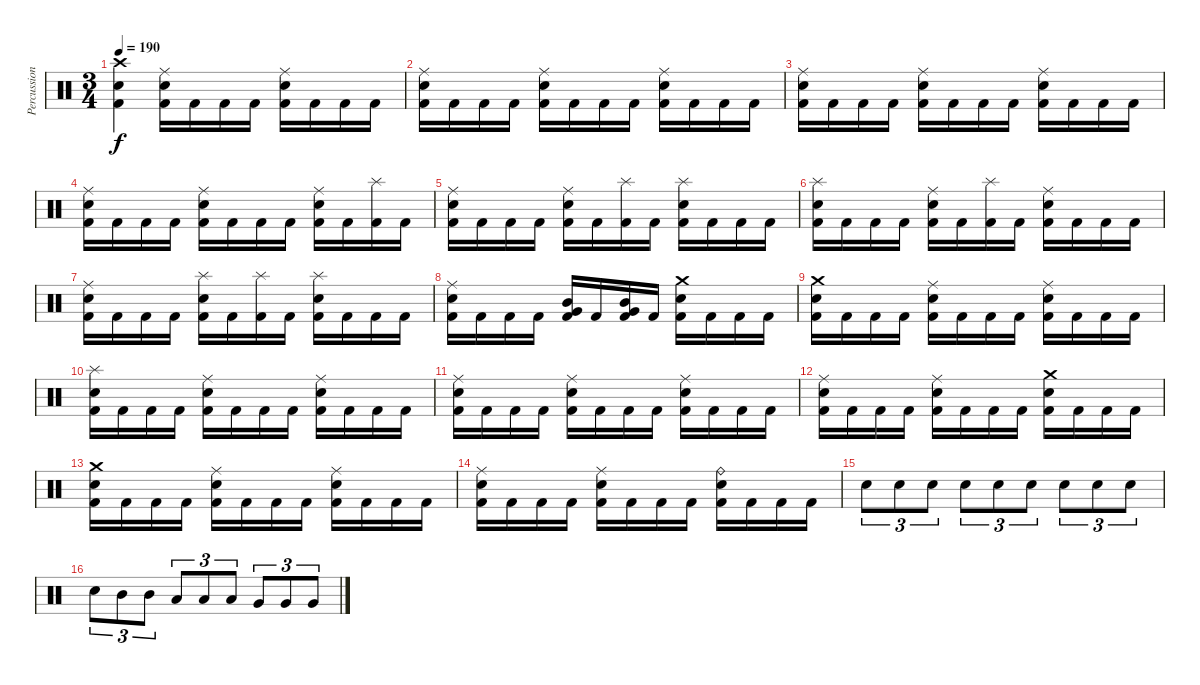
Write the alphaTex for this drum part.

\track ("Percussion" "Percussion") {instrument percussion}
\staff {score}
\articulation defaults
\ts (3 4)
\tempo 190
\clef neutral
\ks c
("Crash high (hit)" "Electric Snare (hit)" "Kick (hit) 2").4{dy f} ("Ride (middle)" "Electric Snare (hit)" "Kick (hit) 2").16 "Kick (hit) 2".16 "Kick (hit) 2".16 "Kick (hit) 2".16 ("Ride (middle)" "Electric Snare (hit)" "Kick (hit) 2").16 "Kick (hit) 2".16 "Kick (hit) 2".16 "Kick (hit) 2".16 |
("Ride (middle)" "Electric Snare (hit)" "Kick (hit) 2").16 "Kick (hit) 2".16 "Kick (hit) 2".16 "Kick (hit) 2".16 ("Ride (middle)" "Electric Snare (hit)" "Kick (hit) 2").16 "Kick (hit) 2".16 "Kick (hit) 2".16 "Kick (hit) 2".16 ("Ride (middle)" "Electric Snare (hit)" "Kick (hit) 2").16 "Kick (hit) 2".16 "Kick (hit) 2".16 "Kick (hit) 2".16 |
("Ride (middle)" "Electric Snare (hit)" "Kick (hit) 2").16 "Kick (hit) 2".16 "Kick (hit) 2".16 "Kick (hit) 2".16 ("Ride (middle)" "Electric Snare (hit)" "Kick (hit) 2").16 "Kick (hit) 2".16 "Kick (hit) 2".16 "Kick (hit) 2".16 ("Ride (middle)" "Electric Snare (hit)" "Kick (hit) 2").16 "Kick (hit) 2".16 "Kick (hit) 2".16 "Kick (hit) 2".16 |
("Ride (middle)" "Electric Snare (hit)" "Kick (hit) 2").16 "Kick (hit) 2".16 "Kick (hit) 2".16 "Kick (hit) 2".16 ("Ride (middle)" "Electric Snare (hit)" "Kick (hit) 2").16 "Kick (hit) 2".16 "Kick (hit) 2".16 "Kick (hit) 2".16 ("Ride (middle)" "Electric Snare (hit)" "Kick (hit) 2").16 "Kick (hit) 2".16 ("Splash (hit)" "Kick (hit) 2").16 "Kick (hit) 2".16 |
("Ride (middle)" "Electric Snare (hit)" "Kick (hit) 2").16 "Kick (hit) 2".16 "Kick (hit) 2".16 "Kick (hit) 2".16 ("Ride (middle)" "Electric Snare (hit)" "Kick (hit) 2").16 "Kick (hit) 2".16 ("Splash (hit)" "Kick (hit) 2").16 "Kick (hit) 2".16 ("Splash (hit)" "Electric Snare (hit)" "Kick (hit) 2").16 "Kick (hit) 2".16 "Kick (hit) 2".16 "Kick (hit) 2".16 |
("Splash (hit)" "Electric Snare (hit)" "Kick (hit) 2").16 "Kick (hit) 2".16 "Kick (hit) 2".16 "Kick (hit) 2".16 ("Ride (middle)" "Electric Snare (hit)" "Kick (hit) 2").16 "Kick (hit) 2".16 ("Splash (hit)" "Kick (hit) 2").16 "Kick (hit) 2".16 ("Ride (middle)" "Electric Snare (hit)" "Kick (hit) 2").16 "Kick (hit) 2".16 "Kick (hit) 2".16 "Kick (hit) 2".16 |
("Ride (middle)" "Electric Snare (hit)" "Kick (hit) 2").16 "Kick (hit) 2".16 "Kick (hit) 2".16 "Kick (hit) 2".16 ("Splash (hit)" "Electric Snare (hit)" "Kick (hit) 2").16 "Kick (hit) 2".16 ("Splash (hit)" "Kick (hit) 2").16 "Kick (hit) 2".16 ("Splash (hit)" "Electric Snare (hit)" "Kick (hit) 2").16 "Kick (hit) 2".16 "Kick (hit) 2".16 "Kick (hit) 2".16 |
("Ride (middle)" "Electric Snare (hit)" "Kick (hit) 2").16 "Kick (hit) 2".16 "Kick (hit) 2".16 "Kick (hit) 2".16 ("Mid Tom (hit)" "Very Low Tom (hit)" "Kick (hit) 2").16 "Kick (hit) 2".16 ("Mid Tom (hit)" "Very Low Tom (hit)" "Kick (hit) 2").16 "Kick (hit) 2".16 ("Crash medium (hit)" "Electric Snare (hit)" "Kick (hit) 2").16 "Kick (hit) 2".16 "Kick (hit) 2".16 "Kick (hit) 2".16 |
("Crash medium (hit)" "Electric Snare (hit)" "Kick (hit) 2").16 "Kick (hit) 2".16 "Kick (hit) 2".16 "Kick (hit) 2".16 ("Ride (middle)" "Electric Snare (hit)" "Kick (hit) 2").16 "Kick (hit) 2".16 "Kick (hit) 2".16 "Kick (hit) 2".16 ("Ride (middle)" "Electric Snare (hit)" "Kick (hit) 2").16 "Kick (hit) 2".16 "Kick (hit) 2".16 "Kick (hit) 2".16 |
("Splash (hit)" "Electric Snare (hit)" "Kick (hit) 2").16 "Kick (hit) 2".16 "Kick (hit) 2".16 "Kick (hit) 2".16 ("Ride (middle)" "Electric Snare (hit)" "Kick (hit) 2").16 "Kick (hit) 2".16 "Kick (hit) 2".16 "Kick (hit) 2".16 ("Ride (middle)" "Electric Snare (hit)" "Kick (hit) 2").16 "Kick (hit) 2".16 "Kick (hit) 2".16 "Kick (hit) 2".16 |
("Ride (middle)" "Electric Snare (hit)" "Kick (hit) 2").16 "Kick (hit) 2".16 "Kick (hit) 2".16 "Kick (hit) 2".16 ("Ride (middle)" "Electric Snare (hit)" "Kick (hit) 2").16 "Kick (hit) 2".16 "Kick (hit) 2".16 "Kick (hit) 2".16 ("Ride (middle)" "Electric Snare (hit)" "Kick (hit) 2").16 "Kick (hit) 2".16 "Kick (hit) 2".16 "Kick (hit) 2".16 |
("Ride (middle)" "Electric Snare (hit)" "Kick (hit) 2").16 "Kick (hit) 2".16 "Kick (hit) 2".16 "Kick (hit) 2".16 ("Ride (middle)" "Electric Snare (hit)" "Kick (hit) 2").16 "Kick (hit) 2".16 "Kick (hit) 2".16 "Kick (hit) 2".16 ("Crash medium (hit)" "Electric Snare (hit)" "Kick (hit) 2").16 "Kick (hit) 2".16 "Kick (hit) 2".16 "Kick (hit) 2".16 |
("Crash medium (hit)" "Electric Snare (hit)" "Kick (hit) 2").16 "Kick (hit) 2".16 "Kick (hit) 2".16 "Kick (hit) 2".16 ("Ride (middle)" "Electric Snare (hit)" "Kick (hit) 2").16 "Kick (hit) 2".16 "Kick (hit) 2".16 "Kick (hit) 2".16 ("Ride (middle)" "Electric Snare (hit)" "Kick (hit) 2").16 "Kick (hit) 2".16 "Kick (hit) 2".16 "Kick (hit) 2".16 |
("Ride (middle)" "Electric Snare (hit)" "Kick (hit) 2").16 "Kick (hit) 2".16 "Kick (hit) 2".16 "Kick (hit) 2".16 ("Ride (middle)" "Electric Snare (hit)" "Kick (hit) 2").16 "Kick (hit) 2".16 "Kick (hit) 2".16 "Kick (hit) 2".16 ("Ride (bell)" "Electric Snare (hit)" "Kick (hit) 2").16 "Kick (hit) 2".16 "Kick (hit) 2".16 "Kick (hit) 2".16 |
"Electric Snare (hit)".8{tu (3 2)} "Electric Snare (hit)".8{tu (3 2)} "Electric Snare (hit)".8{tu (3 2)} "Electric Snare (hit)".8{tu (3 2)} "Electric Snare (hit)".8{tu (3 2)} "Electric Snare (hit)".8{tu (3 2)} "Electric Snare (hit)".8{tu (3 2)} "Electric Snare (hit)".8{tu (3 2)} "Electric Snare (hit)".8{tu (3 2)} |
"Electric Snare (hit)".8{tu (3 2)} "Mid Tom (hit)".8{tu (3 2)} "Mid Tom (hit)".8{tu (3 2)} "Low Tom (hit)".8{tu (3 2)} "Low Tom (hit)".8{tu (3 2)} "Low Tom (hit)".8{tu (3 2)} "Very Low Tom (hit)".8{tu (3 2)} "Very Low Tom (hit)".8{tu (3 2)} "Very Low Tom (hit)".8{tu (3 2)}
